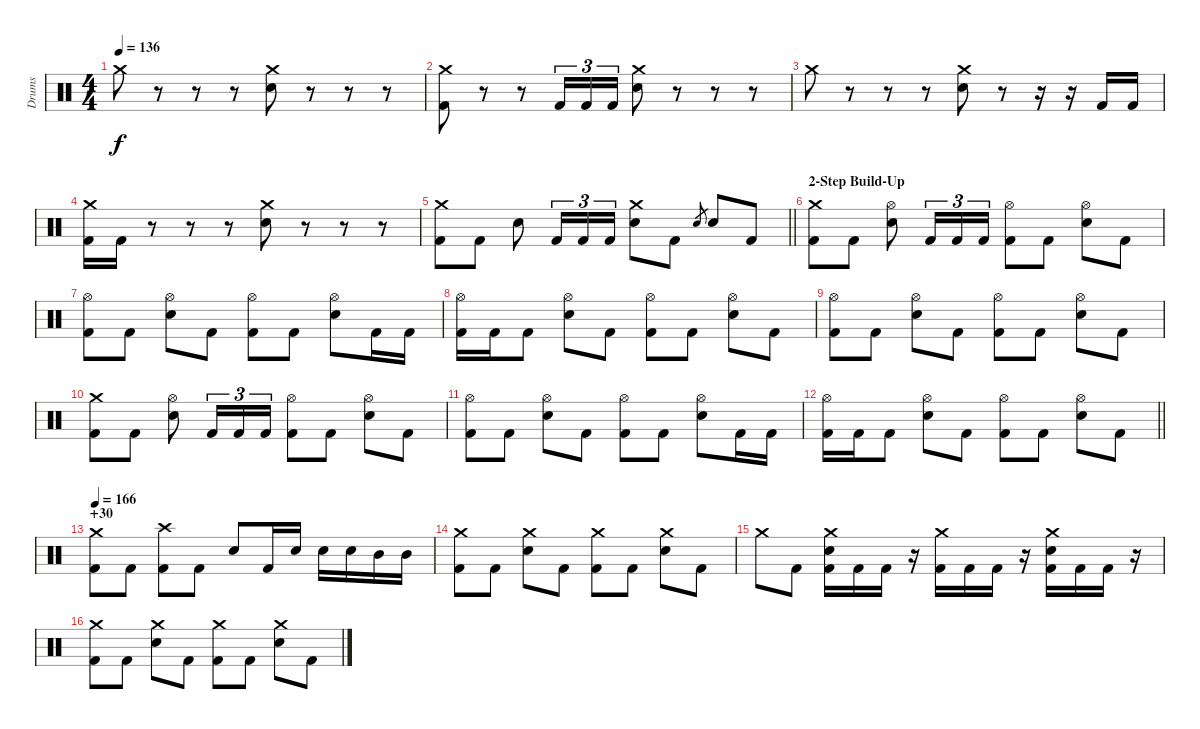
\track ("Drums" "Drums") {instrument percussion}
\staff {score}
\articulation defaults
\ts (4 4)
\tempo 136
\clef neutral
\ks c "Crash medium (hit)".8{dy f}
r.8 r.8 r.8 ("Crash medium (hit)" "Electric Snare (hit)").8 r.8 r.8 r.8 |
("Crash medium (hit)" "Kick (hit) 2").8 r.8 r.8 "Kick (hit) 2".16{tu (3 2)} "Kick (hit) 2".16{tu (3 2)} "Kick (hit) 2".16{tu (3 2)} ("Crash medium (hit)" "Electric Snare (hit)").8 r.8 r.8 r.8 |
"Crash medium (hit)".8 r.8 r.8 r.8 ("Crash medium (hit)" "Electric Snare (hit)").8 r.8 r.16 r.16 "Kick (hit) 2".16 "Kick (hit) 2".16 |
("Crash medium (hit)" "Kick (hit) 2").16 "Kick (hit) 2".16 r.8 r.8 r.8 ("Crash medium (hit)" "Electric Snare (hit)").8 r.8 r.8 r.8 |
\barLineRight lightlight
("Crash medium (hit)" "Kick (hit) 2").8 "Kick (hit) 2".8 "Electric Snare (hit)".8 "Kick (hit) 2".16{tu (3 2)} "Kick (hit) 2".16{tu (3 2)} "Kick (hit) 2".16{tu (3 2)} ("Crash medium (hit)" "Electric Snare (hit)").8 "Kick (hit) 2".8 "Electric Snare (hit)".8{gr} "Electric Snare (hit)".8 "Kick (hit) 2".8 |
\section ("" "2-Step Build-Up")
("Crash medium (hit)" "Kick (hit) 2").8 "Kick (hit) 2".8 ("Hi-Hat (open)" "Electric Snare (hit)").8 "Kick (hit) 2".16{tu (3 2)} "Kick (hit) 2".16{tu (3 2)} "Kick (hit) 2".16{tu (3 2)} ("Hi-Hat (open)" "Kick (hit) 2").8 "Kick (hit) 2".8 ("Hi-Hat (open)" "Electric Snare (hit)").8 "Kick (hit) 2".8 |
("Hi-Hat (open)" "Kick (hit) 2").8 "Kick (hit) 2".8 ("Hi-Hat (open)" "Electric Snare (hit)").8 "Kick (hit) 2".8 ("Hi-Hat (open)" "Kick (hit) 2").8 "Kick (hit) 2".8 ("Hi-Hat (open)" "Electric Snare (hit)").8 "Kick (hit) 2".16 "Kick (hit) 2".16 |
("Hi-Hat (open)" "Kick (hit) 2").16 "Kick (hit) 2".16 "Kick (hit) 2".8 ("Hi-Hat (open)" "Electric Snare (hit)").8 "Kick (hit) 2".8 ("Hi-Hat (open)" "Kick (hit) 2").8 "Kick (hit) 2".8 ("Hi-Hat (open)" "Electric Snare (hit)").8 "Kick (hit) 2".8 |
("Hi-Hat (open)" "Kick (hit) 2").8 "Kick (hit) 2".8 ("Hi-Hat (open)" "Electric Snare (hit)").8 "Kick (hit) 2".8 ("Hi-Hat (open)" "Kick (hit) 2").8 "Kick (hit) 2".8 ("Hi-Hat (open)" "Electric Snare (hit)").8 "Kick (hit) 2".8 |
("Crash medium (hit)" "Kick (hit) 2").8 "Kick (hit) 2".8 ("Hi-Hat (open)" "Electric Snare (hit)").8 "Kick (hit) 2".16{tu (3 2)} "Kick (hit) 2".16{tu (3 2)} "Kick (hit) 2".16{tu (3 2)} ("Hi-Hat (open)" "Kick (hit) 2").8 "Kick (hit) 2".8 ("Hi-Hat (open)" "Electric Snare (hit)").8 "Kick (hit) 2".8 |
("Hi-Hat (open)" "Kick (hit) 2").8 "Kick (hit) 2".8 ("Hi-Hat (open)" "Electric Snare (hit)").8 "Kick (hit) 2".8 ("Hi-Hat (open)" "Kick (hit) 2").8 "Kick (hit) 2".8 ("Hi-Hat (open)" "Electric Snare (hit)").8 "Kick (hit) 2".16 "Kick (hit) 2".16 |
\barLineRight lightlight
("Hi-Hat (open)" "Kick (hit) 2").16 "Kick (hit) 2".16 "Kick (hit) 2".8 ("Hi-Hat (open)" "Electric Snare (hit)").8 "Kick (hit) 2".8 ("Hi-Hat (open)" "Kick (hit) 2").8 "Kick (hit) 2".8 ("Hi-Hat (open)" "Electric Snare (hit)").8 "Kick (hit) 2".8 |
\section ("" "+30")
\tempo 166
("Crash medium (hit)" "Kick (hit) 2").8 "Kick (hit) 2".8 ("Crash high (hit)" "Kick (hit) 2").8 "Kick (hit) 2".8 "Electric Snare (hit)".8 "Kick (hit) 2".16 "Electric Snare (hit)".16 "Electric Snare (hit)".16 "Electric Snare (hit)".16 "Mid Tom (hit)".16 "Mid Tom (hit)".16 |
("Crash medium (hit)" "Kick (hit) 2").8 "Kick (hit) 2".8 ("Crash medium (hit)" "Electric Snare (hit)").8 "Kick (hit) 2".8 ("Crash medium (hit)" "Kick (hit) 2").8 "Kick (hit) 2".8 ("Crash medium (hit)" "Electric Snare (hit)").8 "Kick (hit) 2".8 |
"Crash medium (hit)".8 "Kick (hit) 2".8 ("Crash medium (hit)" "Electric Snare (hit)" "Kick (hit) 2").16 "Kick (hit) 2".16 "Kick (hit) 2".16 r.16 ("Crash medium (hit)" "Kick (hit) 2").16 "Kick (hit) 2".16 "Kick (hit) 2".16 r.16 ("Crash medium (hit)" "Electric Snare (hit)" "Kick (hit) 2").16 "Kick (hit) 2".16 "Kick (hit) 2".16 r.16 |
("Crash medium (hit)" "Kick (hit) 2").8 "Kick (hit) 2".8 ("Crash medium (hit)" "Electric Snare (hit)").8 "Kick (hit) 2".8 ("Crash medium (hit)" "Kick (hit) 2").8 "Kick (hit) 2".8 ("Crash medium (hit)" "Electric Snare (hit)").8 "Kick (hit) 2".8
